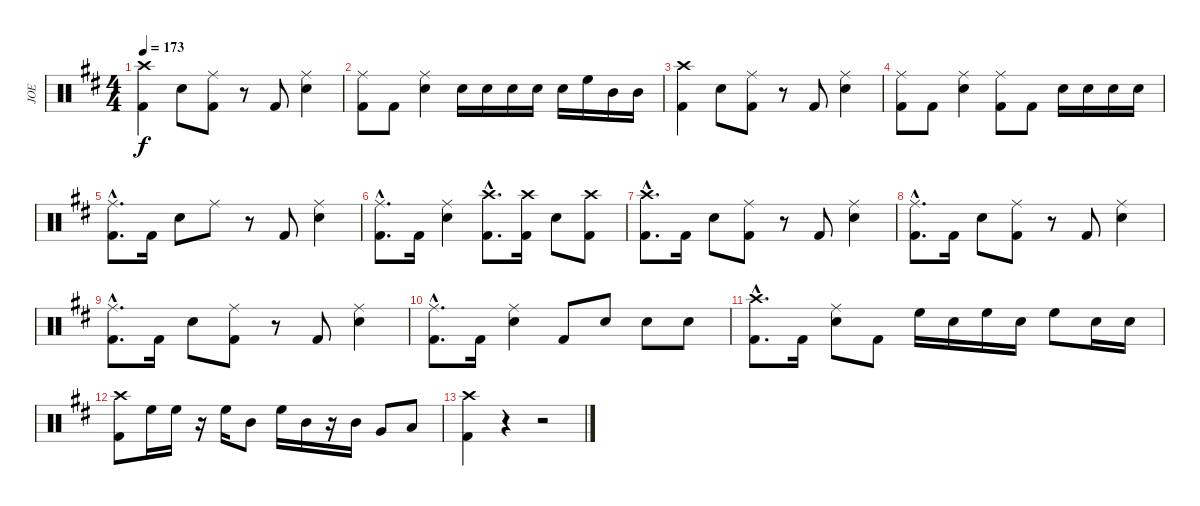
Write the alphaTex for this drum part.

\track ("JOE" "JOE") {instrument percussion}
\staff {score}
\articulation defaults
\ts (4 4)
\tempo 173
\clef neutral
\ks bminor
("Crash high (hit)" "Kick (hit) 2").4{dy f} "Snare (hit) 2".8 ("Ride (middle)" "Kick (hit) 2").8 r.8 "Kick (hit) 2".8 ("Ride (middle)" "Snare (hit) 2").4 |
("Ride (middle)" "Kick (hit) 2").8 "Kick (hit) 2".8 ("Ride (middle)" "Snare (hit) 2").4 "Snare (hit) 2".16 "Snare (hit) 2".16 "Snare (hit) 2".16 "Snare (hit) 2".16 "Snare (hit) 2".16 "High Floor Tom (hit)".16 "Mid Tom (hit)".16 "Mid Tom (hit)".16 |
("Crash high (hit)" "Kick (hit) 2").4 "Snare (hit) 2".8 ("Ride (middle)" "Kick (hit) 2").8 r.8 "Kick (hit) 2".8 ("Ride (middle)" "Snare (hit) 2").4 |
("Ride (middle)" "Kick (hit) 2").8 "Kick (hit) 2".8 ("Ride (middle)" "Snare (hit) 2").4 ("Ride (middle)" "Kick (hit) 2").8 "Kick (hit) 2".8 "Snare (hit) 2".16 "Snare (hit) 2".16 "Snare (hit) 2".16 "Snare (hit) 2".16 |
("Ride (middle)"{hac} "Kick (hit) 2"{hac}).8{d} "Kick (hit) 2".16 "Snare (hit) 2".8 "Ride (middle)".8 r.8 "Kick (hit) 2".8 ("Ride (middle)" "Snare (hit) 2").4 |
("Ride (middle)"{hac} "Kick (hit) 2"{hac}).8{d} "Kick (hit) 2".16 ("Ride (middle)" "Snare (hit) 2").4 ("Crash high (hit)"{hac} "Kick (hit) 2"{hac}).8{d} ("Crash high (hit)" "Kick (hit) 2").16 "Snare (hit) 2".8 ("Crash high (hit)" "Kick (hit) 2").8 |
("Crash high (hit)"{hac} "Kick (hit) 2"{hac}).8{d} "Kick (hit) 2".16 "Snare (hit) 2".8 ("Ride (middle)" "Kick (hit) 2").8 r.8 "Kick (hit) 2".8 ("Ride (middle)" "Snare (hit) 2").4 |
("Ride (middle)"{hac} "Kick (hit) 2"{hac}).8{d} "Kick (hit) 2".16 "Snare (hit) 2".8 ("Ride (middle)" "Kick (hit) 2").8 r.8 "Kick (hit) 2".8 ("Ride (middle)" "Snare (hit) 2").4 |
("Ride (middle)"{hac} "Kick (hit) 2"{hac}).8{d} "Kick (hit) 2".16 "Snare (hit) 2".8 ("Ride (middle)" "Kick (hit) 2").8 r.8 "Kick (hit) 2".8 ("Ride (middle)" "Snare (hit) 2").4 |
("Ride (middle)"{hac} "Kick (hit) 2"{hac}).8{d} "Kick (hit) 2".16 ("Ride (middle)" "Snare (hit) 2").4 "Kick (hit) 2".8 "Snare (hit) 2".8 "Snare (hit) 2".8 "Snare (hit) 2".8 |
("Crash high (hit)"{hac} "Kick (hit) 2"{hac}).8{d} "Kick (hit) 2".16 ("Ride (middle)" "Snare (hit) 2").8 "Kick (hit) 2".8 "High Floor Tom (hit)".16 "Snare (hit) 2".16 "High Floor Tom (hit)".16 "Snare (hit) 2".16 "High Floor Tom (hit)".8 "Snare (hit) 2".16 "Snare (hit) 2".16 |
("Crash high (hit)" "Kick (hit) 2").8 "High Floor Tom (hit)".16 "High Floor Tom (hit)".16 r.16 "High Floor Tom (hit)".16 "Mid Tom (hit)".8 "High Floor Tom (hit)".16 "Mid Tom (hit)".16 r.16 "Mid Tom (hit)".16 "Very Low Tom (hit)".8 "Low Floor Tom (hit)".8 |
("Crash high (hit)" "Kick (hit) 2").4 r.4 r.2
